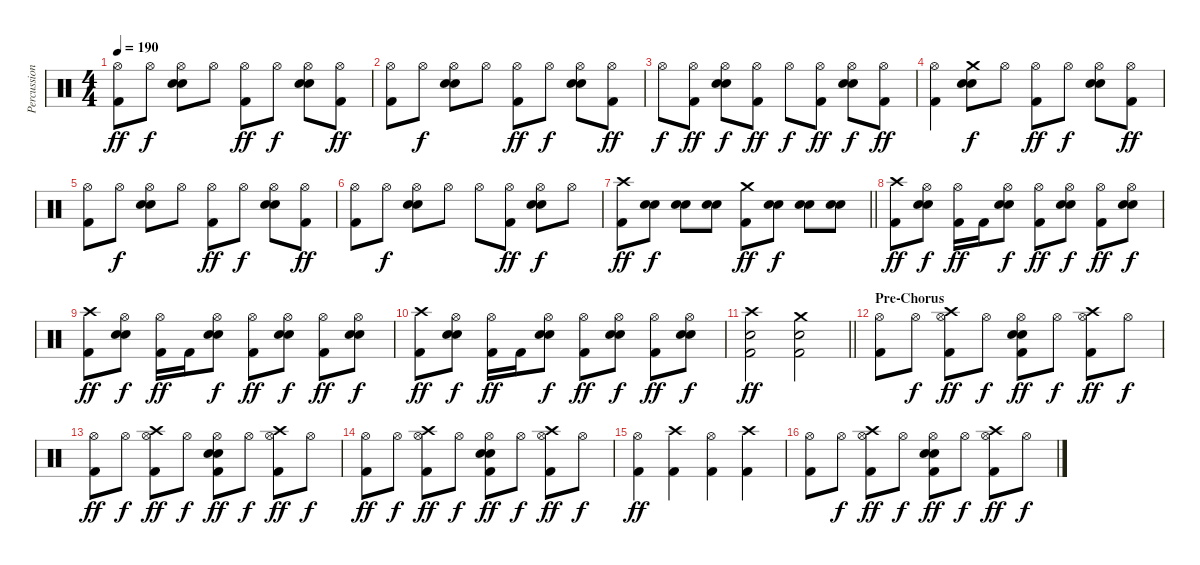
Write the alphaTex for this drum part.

\track ("Percussion" "Percussion") {instrument percussion}
\staff {score}
\articulation defaults
\ts (4 4)
\tempo 190
\clef neutral
\ks c
("Hi-Hat (open)" "Kick (hit) 2").8{dy ff} "Hi-Hat (open)".8{dy f} ("Hi-Hat (open)" "Electric Snare (hit)" "Snare (hit) 2").8 "Hi-Hat (open)".8 ("Hi-Hat (open)" "Kick (hit) 2").8{dy ff} "Hi-Hat (open)".8{dy f} ("Hi-Hat (open)" "Electric Snare (hit)" "Snare (hit) 2").8 ("Hi-Hat (open)" "Kick (hit) 2").8{dy ff} |
("Hi-Hat (open)" "Kick (hit) 2").8 "Hi-Hat (open)".8{dy f} ("Hi-Hat (open)" "Electric Snare (hit)" "Snare (hit) 2").8 "Hi-Hat (open)".8 ("Hi-Hat (open)" "Kick (hit) 2").8{dy ff} "Hi-Hat (open)".8{dy f} ("Hi-Hat (open)" "Electric Snare (hit)" "Snare (hit) 2").8 ("Hi-Hat (open)" "Kick (hit) 2").8{dy ff} |
"Hi-Hat (open)".8{dy f} ("Hi-Hat (open)" "Kick (hit) 2").8{dy ff} ("Hi-Hat (open)" "Electric Snare (hit)" "Snare (hit) 2").8{dy f} ("Hi-Hat (open)" "Kick (hit) 2").8{dy ff} "Hi-Hat (open)".8{dy f} ("Hi-Hat (open)" "Kick (hit) 2").8{dy ff} ("Hi-Hat (open)" "Electric Snare (hit)" "Snare (hit) 2").8{dy f} ("Hi-Hat (open)" "Kick (hit) 2").8{dy ff} |
("Hi-Hat (open)" "Kick (hit) 2").4 ("Crash medium (hit)" "Electric Snare (hit)" "Snare (hit) 2").8{dy f} "Hi-Hat (open)".8 ("Hi-Hat (open)" "Kick (hit) 2").8{dy ff} "Hi-Hat (open)".8{dy f} ("Hi-Hat (open)" "Electric Snare (hit)" "Snare (hit) 2").8 ("Hi-Hat (open)" "Kick (hit) 2").8{dy ff} |
("Hi-Hat (open)" "Kick (hit) 2").8 "Hi-Hat (open)".8{dy f} ("Hi-Hat (open)" "Electric Snare (hit)" "Snare (hit) 2").8 "Hi-Hat (open)".8 ("Hi-Hat (open)" "Kick (hit) 2").8{dy ff} "Hi-Hat (open)".8{dy f} ("Hi-Hat (open)" "Electric Snare (hit)" "Snare (hit) 2").8 ("Hi-Hat (open)" "Kick (hit) 2").8{dy ff} |
("Hi-Hat (open)" "Kick (hit) 2").8 "Hi-Hat (open)".8{dy f} ("Hi-Hat (open)" "Electric Snare (hit)" "Snare (hit) 2").8 "Hi-Hat (open)".8 "Hi-Hat (open)".8 ("Hi-Hat (open)" "Kick (hit) 2").8{dy ff} ("Hi-Hat (open)" "Electric Snare (hit)" "Snare (hit) 2").8{dy f} "Hi-Hat (open)".8 |
\barLineRight lightlight
("Crash high (hit)" "Kick (hit) 2").8{dy ff} ("Electric Snare (hit)" "Snare (hit) 2").8{dy f} ("Electric Snare (hit)" "Snare (hit) 2").8 ("Electric Snare (hit)" "Snare (hit) 2").8 ("Crash medium (hit)" "Kick (hit) 2").8{dy ff} ("Electric Snare (hit)" "Snare (hit) 2").8{dy f} ("Electric Snare (hit)" "Snare (hit) 2").8 ("Electric Snare (hit)" "Snare (hit) 2").8 |
\section ("" "")
("Crash high (hit)" "Kick (hit) 2").8{dy ff} ("Hi-Hat (open)" "Electric Snare (hit)" "Snare (hit) 2").8{dy f} ("Hi-Hat (open)" "Kick (hit) 2").16{dy ff} "Kick (hit) 2".16 ("Hi-Hat (open)" "Electric Snare (hit)" "Snare (hit) 2").8{dy f} ("Hi-Hat (open)" "Kick (hit) 2").8{dy ff} ("Hi-Hat (open)" "Electric Snare (hit)" "Snare (hit) 2").8{dy f} ("Hi-Hat (open)" "Kick (hit) 2").8{dy ff} ("Hi-Hat (open)" "Electric Snare (hit)" "Snare (hit) 2").8{dy f} |
("Crash high (hit)" "Kick (hit) 2").8{dy ff} ("Hi-Hat (open)" "Electric Snare (hit)" "Snare (hit) 2").8{dy f} ("Hi-Hat (open)" "Kick (hit) 2").16{dy ff} "Kick (hit) 2".16 ("Hi-Hat (open)" "Electric Snare (hit)" "Snare (hit) 2").8{dy f} ("Hi-Hat (open)" "Kick (hit) 2").8{dy ff} ("Hi-Hat (open)" "Electric Snare (hit)" "Snare (hit) 2").8{dy f} ("Hi-Hat (open)" "Kick (hit) 2").8{dy ff} ("Hi-Hat (open)" "Electric Snare (hit)" "Snare (hit) 2").8{dy f} |
("Crash high (hit)" "Kick (hit) 2").8{dy ff} ("Hi-Hat (open)" "Electric Snare (hit)" "Snare (hit) 2").8{dy f} ("Hi-Hat (open)" "Kick (hit) 2").16{dy ff} "Kick (hit) 2".16 ("Hi-Hat (open)" "Electric Snare (hit)" "Snare (hit) 2").8{dy f} ("Hi-Hat (open)" "Kick (hit) 2").8{dy ff} ("Hi-Hat (open)" "Electric Snare (hit)" "Snare (hit) 2").8{dy f} ("Hi-Hat (open)" "Kick (hit) 2").8{dy ff} ("Hi-Hat (open)" "Electric Snare (hit)" "Snare (hit) 2").8{dy f} |
\barLineRight lightlight
("Crash high (hit)" "Snare (hit) 2" "Kick (hit) 2").2{dy ff} ("Crash medium (hit)" "Snare (hit) 2" "Kick (hit) 2").2 |
\section ("" "Pre-Chorus")
("Hi-Hat (open)" "Kick (hit) 2").8 "Hi-Hat (open)".8{dy f} ("Crash high (hit)" "Hi-Hat (open)" "Kick (hit) 2").8{dy ff} "Hi-Hat (open)".8{dy f} ("Hi-Hat (open)" "Electric Snare (hit)" "Snare (hit) 2" "Kick (hit) 2").8{dy ff} "Hi-Hat (open)".8{dy f} ("Crash high (hit)" "Hi-Hat (open)" "Kick (hit) 2").8{dy ff} "Hi-Hat (open)".8{dy f} |
("Hi-Hat (open)" "Kick (hit) 2").8{dy ff} "Hi-Hat (open)".8{dy f} ("Crash high (hit)" "Hi-Hat (open)" "Kick (hit) 2").8{dy ff} "Hi-Hat (open)".8{dy f} ("Hi-Hat (open)" "Electric Snare (hit)" "Snare (hit) 2" "Kick (hit) 2").8{dy ff} "Hi-Hat (open)".8{dy f} ("Crash high (hit)" "Hi-Hat (open)" "Kick (hit) 2").8{dy ff} "Hi-Hat (open)".8{dy f} |
("Hi-Hat (open)" "Kick (hit) 2").8{dy ff} "Hi-Hat (open)".8{dy f} ("Crash high (hit)" "Hi-Hat (open)" "Kick (hit) 2").8{dy ff} "Hi-Hat (open)".8{dy f} ("Hi-Hat (open)" "Electric Snare (hit)" "Snare (hit) 2" "Kick (hit) 2").8{dy ff} "Hi-Hat (open)".8{dy f} ("Crash high (hit)" "Hi-Hat (open)" "Kick (hit) 2").8{dy ff} "Hi-Hat (open)".8{dy f} |
("Hi-Hat (open)" "Kick (hit) 2").4{dy ff} ("Crash high (hit)" "Kick (hit) 2").4 ("Hi-Hat (open)" "Kick (hit) 2").4 ("Crash high (hit)" "Kick (hit) 2").4 |
("Hi-Hat (open)" "Kick (hit) 2").8 "Hi-Hat (open)".8{dy f} ("Crash high (hit)" "Hi-Hat (open)" "Kick (hit) 2").8{dy ff} "Hi-Hat (open)".8{dy f} ("Hi-Hat (open)" "Electric Snare (hit)" "Snare (hit) 2" "Kick (hit) 2").8{dy ff} "Hi-Hat (open)".8{dy f} ("Crash high (hit)" "Hi-Hat (open)" "Kick (hit) 2").8{dy ff} "Hi-Hat (open)".8{dy f}
